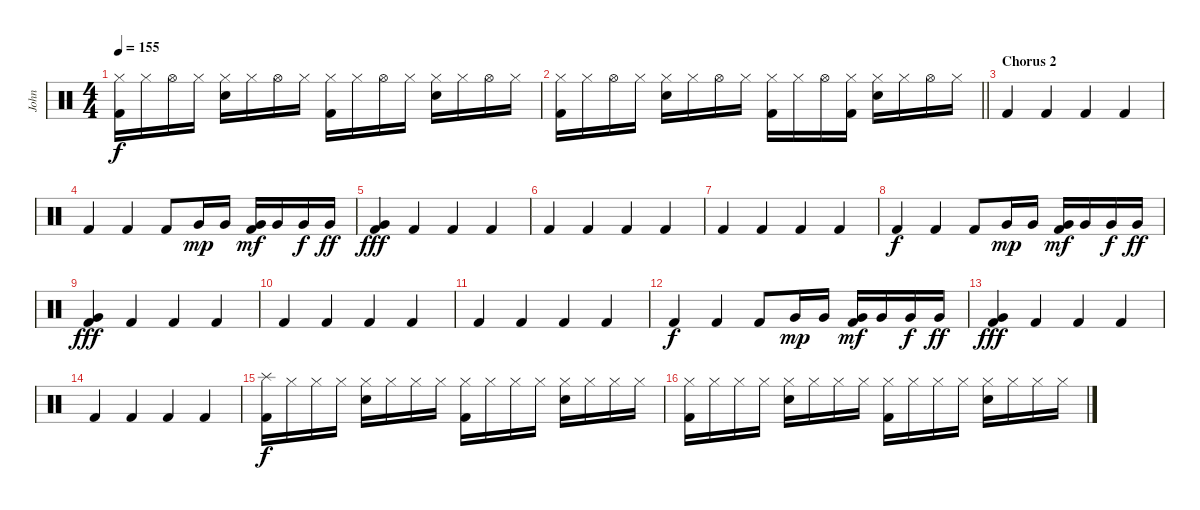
\track ("John" "John") {instrument percussion}
\staff {score}
\articulation defaults
\ts (4 4)
\tempo 155
\clef neutral
\ks c
("Hi-Hat (closed)" "Kick (hit) 2").16{dy f} "Hi-Hat (closed)".16 "Hi-Hat (open)".16 "Hi-Hat (closed)".16 ("Hi-Hat (closed)" "Snare (hit) 2").16 "Hi-Hat (closed)".16 "Hi-Hat (open)".16 "Hi-Hat (closed)".16 ("Hi-Hat (closed)" "Kick (hit) 2").16 "Hi-Hat (closed)".16 "Hi-Hat (open)".16 "Hi-Hat (closed)".16 ("Hi-Hat (closed)" "Snare (hit) 2").16 "Hi-Hat (closed)".16 "Hi-Hat (open)".16 "Hi-Hat (closed)".16 |
\barLineRight lightlight
("Hi-Hat (closed)" "Kick (hit) 2").16 "Hi-Hat (closed)".16 "Hi-Hat (open)".16 "Hi-Hat (closed)".16 ("Hi-Hat (closed)" "Snare (hit) 2").16 "Hi-Hat (closed)".16 "Hi-Hat (open)".16 "Hi-Hat (closed)".16 ("Hi-Hat (closed)" "Kick (hit) 2").16 "Hi-Hat (closed)".16 "Hi-Hat (open)".16 ("Hi-Hat (closed)" "Kick (hit) 2").16 ("Hi-Hat (closed)" "Snare (hit) 2").16 "Hi-Hat (closed)".16 "Hi-Hat (open)".16 "Hi-Hat (closed)".16 |
\section ("" "Chorus 2")
"Kick (hit) 2".4 "Kick (hit) 2".4 "Kick (hit) 2".4 "Kick (hit) 2".4 |
"Kick (hit) 2".4 "Kick (hit) 2".4 "Kick (hit) 2".8 "Very Low Tom (hit)".16{dy mp} "Very Low Tom (hit)".16 ("Very Low Tom (hit)" "Kick (hit) 2").16{dy mf} "Very Low Tom (hit)".16 "Very Low Tom (hit)".16{dy f} "Very Low Tom (hit)".16{dy ff} |
("Very Low Tom (hit)" "Kick (hit) 2").4{dy fff} "Kick (hit) 2".4 "Kick (hit) 2".4 "Kick (hit) 2".4 |
"Kick (hit) 2".4 "Kick (hit) 2".4 "Kick (hit) 2".4 "Kick (hit) 2".4 |
"Kick (hit) 2".4 "Kick (hit) 2".4 "Kick (hit) 2".4 "Kick (hit) 2".4 |
"Kick (hit) 2".4{dy f} "Kick (hit) 2".4 "Kick (hit) 2".8 "Very Low Tom (hit)".16{dy mp} "Very Low Tom (hit)".16 ("Very Low Tom (hit)" "Kick (hit) 2").16{dy mf} "Very Low Tom (hit)".16 "Very Low Tom (hit)".16{dy f} "Very Low Tom (hit)".16{dy ff} |
("Very Low Tom (hit)" "Kick (hit) 2").4{dy fff} "Kick (hit) 2".4 "Kick (hit) 2".4 "Kick (hit) 2".4 |
"Kick (hit) 2".4 "Kick (hit) 2".4 "Kick (hit) 2".4 "Kick (hit) 2".4 |
"Kick (hit) 2".4 "Kick (hit) 2".4 "Kick (hit) 2".4 "Kick (hit) 2".4 |
"Kick (hit) 2".4{dy f} "Kick (hit) 2".4 "Kick (hit) 2".8 "Very Low Tom (hit)".16{dy mp} "Very Low Tom (hit)".16 ("Very Low Tom (hit)" "Kick (hit) 2").16{dy mf} "Very Low Tom (hit)".16 "Very Low Tom (hit)".16{dy f} "Very Low Tom (hit)".16{dy ff} |
("Very Low Tom (hit)" "Kick (hit) 2").4{dy fff} "Kick (hit) 2".4 "Kick (hit) 2".4 "Kick (hit) 2".4 |
"Kick (hit) 2".4 "Kick (hit) 2".4 "Kick (hit) 2".4 "Kick (hit) 2".4 |
("Splash (hit)" "Kick (hit) 2").16{dy f} "Hi-Hat (closed)".16 "Hi-Hat (closed)".16 "Hi-Hat (closed)".16 ("Hi-Hat (closed)" "Snare (hit) 2").16 "Hi-Hat (closed)".16 "Hi-Hat (closed)".16 "Hi-Hat (closed)".16 ("Hi-Hat (closed)" "Kick (hit) 2").16 "Hi-Hat (closed)".16 "Hi-Hat (closed)".16 "Hi-Hat (closed)".16 ("Hi-Hat (closed)" "Snare (hit) 2").16 "Hi-Hat (closed)".16 "Hi-Hat (closed)".16 "Hi-Hat (closed)".16 |
("Hi-Hat (closed)" "Kick (hit) 2").16 "Hi-Hat (closed)".16 "Hi-Hat (closed)".16 "Hi-Hat (closed)".16 ("Hi-Hat (closed)" "Snare (hit) 2").16 "Hi-Hat (closed)".16 "Hi-Hat (closed)".16 "Hi-Hat (closed)".16 ("Hi-Hat (closed)" "Kick (hit) 2").16 "Hi-Hat (closed)".16 "Hi-Hat (closed)".16 "Hi-Hat (closed)".16 ("Hi-Hat (closed)" "Snare (hit) 2").16 "Hi-Hat (closed)".16 "Hi-Hat (closed)".16 "Hi-Hat (closed)".16
